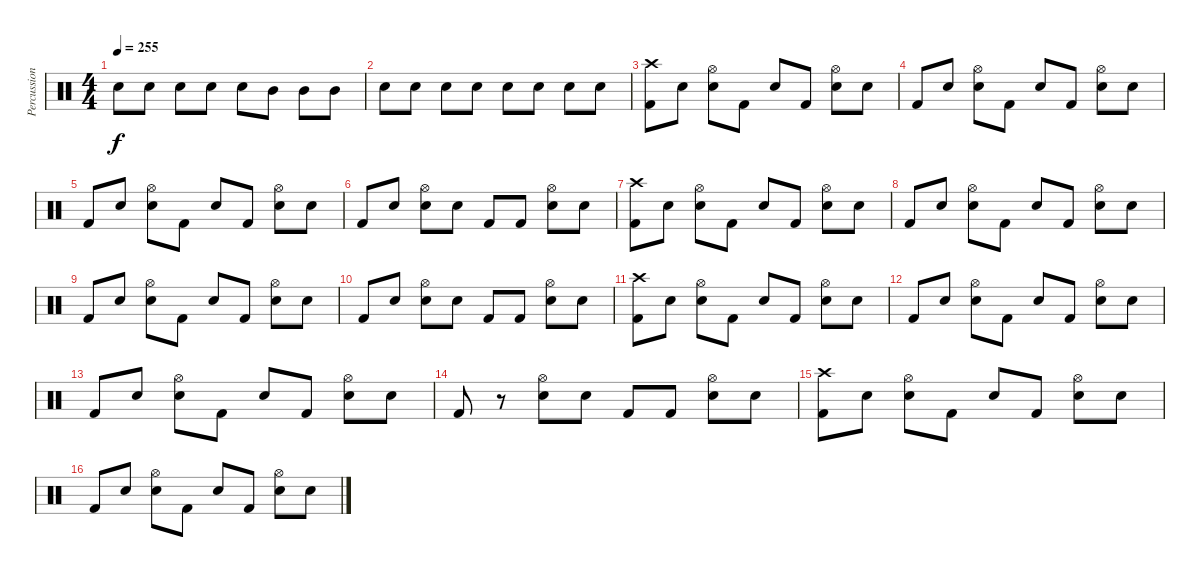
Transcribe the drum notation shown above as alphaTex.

\track ("Percussion" "Percussion") {instrument percussion}
\staff {score}
\articulation defaults
\ts (4 4)
\tempo 255
\clef neutral
\ks c "Snare (hit) 2".8{dy f} "Snare (hit) 2".8 "Snare (hit) 2".8 "Snare (hit) 2".8 "Snare (hit) 2".8 "Mid Tom (hit)".8 "Mid Tom (hit)".8 "Mid Tom (hit)".8
|
"Snare (hit) 2".8 "Snare (hit) 2".8 "Snare (hit) 2".8 "Snare (hit) 2".8 "Snare (hit) 2".8 "Snare (hit) 2".8 "Snare (hit) 2".8 "Snare (hit) 2".8 |
("Kick (hit) 2" "Crash high (hit)").8 "Snare (hit)".8 ("Snare (hit) 2" "Hi-Hat (open)").8 "Kick (hit) 2".8 "Snare (hit)".8 "Kick (hit) 2".8 ("Snare (hit) 2" "Hi-Hat (open)").8 "Snare (hit)".8 |
"Kick (hit) 2".8 "Snare (hit)".8 ("Snare (hit) 2" "Hi-Hat (open)").8 "Kick (hit) 2".8 "Snare (hit)".8 "Kick (hit) 2".8 ("Snare (hit) 2" "Hi-Hat (open)").8 "Snare (hit)".8 |
"Kick (hit) 2".8 "Snare (hit)".8 ("Snare (hit) 2" "Hi-Hat (open)").8 "Kick (hit) 2".8 "Snare (hit)".8 "Kick (hit) 2".8 ("Snare (hit) 2" "Hi-Hat (open)").8 "Snare (hit)".8 |
"Kick (hit) 2".8 "Snare (hit)".8 ("Snare (hit) 2" "Hi-Hat (open)").8 "Snare (hit)".8 "Kick (hit) 2".8 "Kick (hit) 2".8 ("Snare (hit) 2" "Hi-Hat (open)").8 "Snare (hit)".8 |
("Kick (hit) 2" "Crash high (hit)").8 "Snare (hit)".8 ("Snare (hit) 2" "Hi-Hat (open)").8 "Kick (hit) 2".8 "Snare (hit)".8 "Kick (hit) 2".8 ("Snare (hit) 2" "Hi-Hat (open)").8 "Snare (hit)".8 |
"Kick (hit) 2".8 "Snare (hit)".8 ("Snare (hit) 2" "Hi-Hat (open)").8 "Kick (hit) 2".8 "Snare (hit)".8 "Kick (hit) 2".8 ("Snare (hit) 2" "Hi-Hat (open)").8 "Snare (hit)".8 |
"Kick (hit) 2".8 "Snare (hit)".8 ("Snare (hit) 2" "Hi-Hat (open)").8 "Kick (hit) 2".8 "Snare (hit)".8 "Kick (hit) 2".8 ("Snare (hit) 2" "Hi-Hat (open)").8 "Snare (hit)".8 |
"Kick (hit) 2".8 "Snare (hit)".8 ("Snare (hit) 2" "Hi-Hat (open)").8 "Snare (hit)".8 "Kick (hit) 2".8 "Kick (hit) 2".8 ("Snare (hit) 2" "Hi-Hat (open)").8 "Snare (hit)".8 |
("Kick (hit) 2" "Crash high (hit)").8 "Snare (hit)".8 ("Snare (hit) 2" "Hi-Hat (open)").8 "Kick (hit) 2".8 "Snare (hit)".8 "Kick (hit) 2".8 ("Snare (hit) 2" "Hi-Hat (open)").8 "Snare (hit)".8 |
"Kick (hit) 2".8 "Snare (hit)".8 ("Snare (hit) 2" "Hi-Hat (open)").8 "Kick (hit) 2".8 "Snare (hit)".8 "Kick (hit) 2".8 ("Snare (hit) 2" "Hi-Hat (open)").8 "Snare (hit)".8 |
"Kick (hit) 2".8 "Snare (hit)".8 ("Snare (hit) 2" "Hi-Hat (open)").8 "Kick (hit) 2".8 "Snare (hit)".8 "Kick (hit) 2".8 ("Snare (hit) 2" "Hi-Hat (open)").8 "Snare (hit)".8 |
"Kick (hit) 2".8 r.8 ("Snare (hit) 2" "Hi-Hat (open)").8 "Snare (hit)".8 "Kick (hit) 2".8 "Kick (hit) 2".8 ("Snare (hit) 2" "Hi-Hat (open)").8 "Snare (hit)".8 |
("Kick (hit) 2" "Crash high (hit)").8 "Snare (hit)".8 ("Snare (hit) 2" "Hi-Hat (open)").8 "Kick (hit) 2".8 "Snare (hit)".8 "Kick (hit) 2".8 ("Snare (hit) 2" "Hi-Hat (open)").8 "Snare (hit)".8 |
"Kick (hit) 2".8 "Snare (hit)".8 ("Snare (hit) 2" "Hi-Hat (open)").8 "Kick (hit) 2".8 "Snare (hit)".8 "Kick (hit) 2".8 ("Snare (hit) 2" "Hi-Hat (open)").8 "Snare (hit)".8
